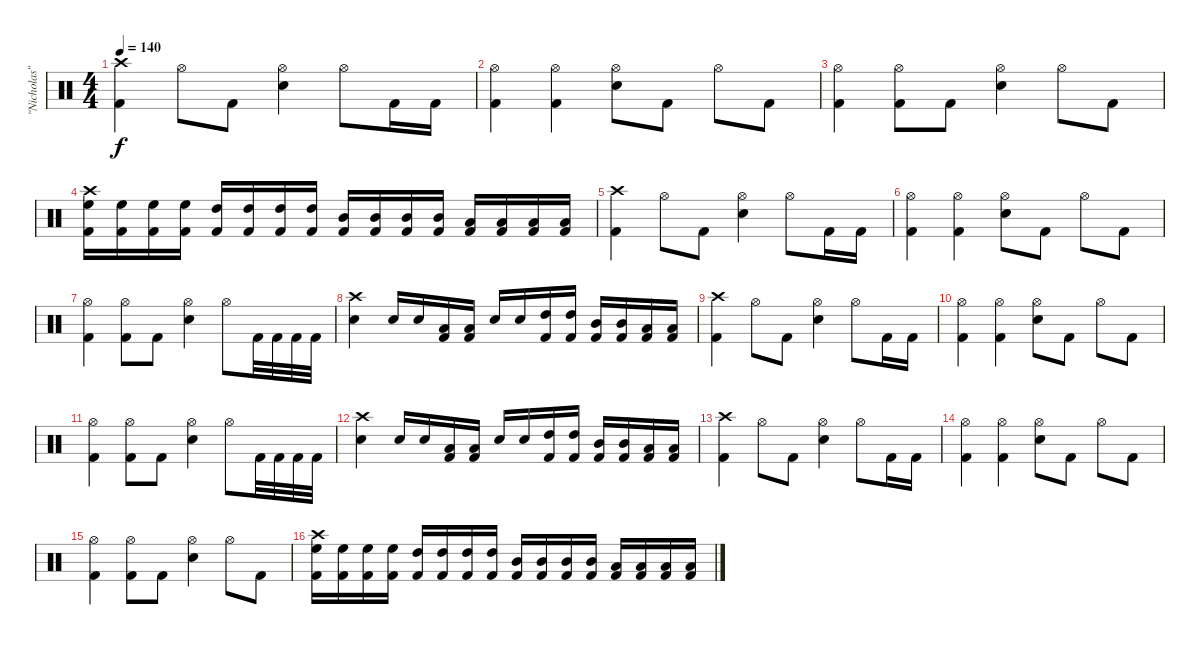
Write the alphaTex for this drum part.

\track ("\"Nicholas\"" "\"Nicholas\"") {instrument percussion}
\staff {score}
\articulation defaults
\ts (4 4)
\tempo 140
\clef neutral
\ks c
("Kick (hit) 2" "Crash high (hit)").4{dy f} "Hi-Hat (open)".8 "Kick (hit) 2".8 ("Snare (hit) 2" "Hi-Hat (open)").4 "Hi-Hat (open)".8 "Kick (hit) 2".16 "Kick (hit) 2".16 |
("Kick (hit) 2" "Hi-Hat (open)").4 ("Kick (hit) 2" "Hi-Hat (open)").4 ("Snare (hit) 2" "Hi-Hat (open)").8 "Kick (hit) 2".8 "Hi-Hat (open)".8 "Kick (hit) 2".8 |
("Kick (hit) 2" "Hi-Hat (open)").4 ("Kick (hit) 2" "Hi-Hat (open)").8 "Kick (hit) 2".8 ("Snare (hit) 2" "Hi-Hat (open)").4 "Hi-Hat (open)".8 "Kick (hit) 2".8 |
("Kick (hit) 2" "Crash high (hit)" "High Floor Tom (hit)").16 ("Kick (hit) 2" "High Floor Tom (hit)").16 ("Kick (hit) 2" "High Floor Tom (hit)").16 ("Kick (hit) 2" "High Floor Tom (hit)").16 ("Kick (hit) 2" "High Tom (hit)").16 ("Kick (hit) 2" "High Tom (hit)").16 ("Kick (hit) 2" "High Tom (hit)").16 ("Kick (hit) 2" "High Tom (hit)").16 ("Kick (hit) 2" "Mid Tom (hit)").16 ("Kick (hit) 2" "Mid Tom (hit)").16 ("Kick (hit) 2" "Mid Tom (hit)").16 ("Kick (hit) 2" "Mid Tom (hit)").16 ("Kick (hit) 2" "Low Tom (hit)").16 ("Kick (hit) 2" "Low Tom (hit)").16 ("Kick (hit) 2" "Low Tom (hit)").16 ("Kick (hit) 2" "Low Tom (hit)").16 |
("Kick (hit) 2" "Crash high (hit)").4 "Hi-Hat (open)".8 "Kick (hit) 2".8 ("Snare (hit) 2" "Hi-Hat (open)").4 "Hi-Hat (open)".8 "Kick (hit) 2".16 "Kick (hit) 2".16 |
("Kick (hit) 2" "Hi-Hat (open)").4 ("Kick (hit) 2" "Hi-Hat (open)").4 ("Snare (hit) 2" "Hi-Hat (open)").8 "Kick (hit) 2".8 "Hi-Hat (open)".8 "Kick (hit) 2".8 |
("Kick (hit) 2" "Hi-Hat (open)").4 ("Kick (hit) 2" "Hi-Hat (open)").8 "Kick (hit) 2".8 ("Snare (hit) 2" "Hi-Hat (open)").4 "Hi-Hat (open)".8 "Kick (hit) 2".32 "Kick (hit) 2".32 "Kick (hit) 2".32 "Kick (hit) 2".32 |
("Snare (hit) 2" "Crash high (hit)").4 "Snare (hit) 2".16 "Snare (hit) 2".16 ("Kick (hit) 2" "Low Tom (hit)").16 ("Kick (hit) 2" "Low Tom (hit)").16 "Snare (hit) 2".16 "Snare (hit) 2".16 ("Kick (hit) 2" "High Tom (hit)").16 ("Kick (hit) 2" "High Tom (hit)").16 ("Kick (hit) 2" "Mid Tom (hit)").16 ("Kick (hit) 2" "Mid Tom (hit)").16 ("Kick (hit) 2" "Low Tom (hit)").16 ("Kick (hit) 2" "Low Tom (hit)").16 |
("Kick (hit) 2" "Crash high (hit)").4 "Hi-Hat (open)".8 "Kick (hit) 2".8 ("Snare (hit) 2" "Hi-Hat (open)").4 "Hi-Hat (open)".8 "Kick (hit) 2".16 "Kick (hit) 2".16 |
("Kick (hit) 2" "Hi-Hat (open)").4 ("Kick (hit) 2" "Hi-Hat (open)").4 ("Snare (hit) 2" "Hi-Hat (open)").8 "Kick (hit) 2".8 "Hi-Hat (open)".8 "Kick (hit) 2".8 |
("Kick (hit) 2" "Hi-Hat (open)").4 ("Kick (hit) 2" "Hi-Hat (open)").8 "Kick (hit) 2".8 ("Snare (hit) 2" "Hi-Hat (open)").4 "Hi-Hat (open)".8 "Kick (hit) 2".32 "Kick (hit) 2".32 "Kick (hit) 2".32 "Kick (hit) 2".32 |
("Snare (hit) 2" "Crash high (hit)").4 "Snare (hit) 2".16 "Snare (hit) 2".16 ("Kick (hit) 2" "Low Tom (hit)").16 ("Kick (hit) 2" "Low Tom (hit)").16 "Snare (hit) 2".16 "Snare (hit) 2".16 ("Kick (hit) 2" "High Tom (hit)").16 ("Kick (hit) 2" "High Tom (hit)").16 ("Kick (hit) 2" "Mid Tom (hit)").16 ("Kick (hit) 2" "Mid Tom (hit)").16 ("Kick (hit) 2" "Low Tom (hit)").16 ("Kick (hit) 2" "Low Tom (hit)").16 |
("Kick (hit) 2" "Crash high (hit)").4 "Hi-Hat (open)".8 "Kick (hit) 2".8 ("Snare (hit) 2" "Hi-Hat (open)").4 "Hi-Hat (open)".8 "Kick (hit) 2".16 "Kick (hit) 2".16 |
("Kick (hit) 2" "Hi-Hat (open)").4 ("Kick (hit) 2" "Hi-Hat (open)").4 ("Snare (hit) 2" "Hi-Hat (open)").8 "Kick (hit) 2".8 "Hi-Hat (open)".8 "Kick (hit) 2".8 |
("Kick (hit) 2" "Hi-Hat (open)").4 ("Kick (hit) 2" "Hi-Hat (open)").8 "Kick (hit) 2".8 ("Snare (hit) 2" "Hi-Hat (open)").4 "Hi-Hat (open)".8 "Kick (hit) 2".8 |
("Kick (hit) 2" "Crash high (hit)" "High Floor Tom (hit)").16 ("Kick (hit) 2" "High Floor Tom (hit)").16 ("Kick (hit) 2" "High Floor Tom (hit)").16 ("Kick (hit) 2" "High Floor Tom (hit)").16 ("Kick (hit) 2" "High Tom (hit)").16 ("Kick (hit) 2" "High Tom (hit)").16 ("Kick (hit) 2" "High Tom (hit)").16 ("Kick (hit) 2" "High Tom (hit)").16 ("Kick (hit) 2" "Mid Tom (hit)").16 ("Kick (hit) 2" "Mid Tom (hit)").16 ("Kick (hit) 2" "Mid Tom (hit)").16 ("Kick (hit) 2" "Mid Tom (hit)").16 ("Kick (hit) 2" "Low Tom (hit)").16 ("Kick (hit) 2" "Low Tom (hit)").16 ("Kick (hit) 2" "Low Tom (hit)").16 ("Kick (hit) 2" "Low Tom (hit)").16
